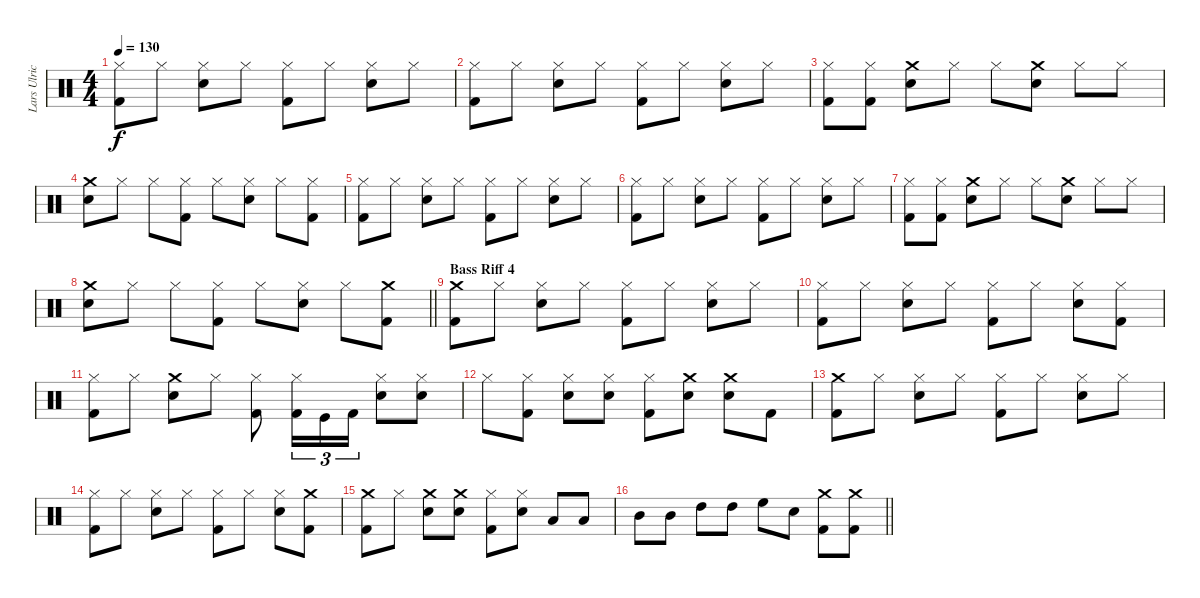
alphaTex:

\track ("Lars Ulrich (Drums)" "Lars Ulric") {instrument percussion}
\staff {score}
\articulation defaults
\ts (4 4)
\tempo 130
\clef neutral
\ks c
("Hi-Hat (closed)" "Kick (hit) 2").8{dy f} "Hi-Hat (closed)".8 ("Snare (hit) 2" "Hi-Hat (closed)").8 "Hi-Hat (closed)".8 ("Hi-Hat (closed)" "Kick (hit) 2").8 "Hi-Hat (closed)".8 ("Snare (hit) 2" "Hi-Hat (closed)").8 "Hi-Hat (closed)".8 |
("Hi-Hat (closed)" "Kick (hit) 2").8 "Hi-Hat (closed)".8 ("Snare (hit) 2" "Hi-Hat (closed)").8 "Hi-Hat (closed)".8 ("Hi-Hat (closed)" "Kick (hit) 2").8 "Hi-Hat (closed)".8 ("Snare (hit) 2" "Hi-Hat (closed)").8 "Hi-Hat (closed)".8 |
("Hi-Hat (closed)" "Kick (hit) 2").8 ("Hi-Hat (closed)" "Kick (hit) 2").8 ("Crash medium (hit)" "Snare (hit) 2").8 "Hi-Hat (closed)".8 "Hi-Hat (closed)".8 ("Crash medium (hit)" "Snare (hit) 2").8 "Hi-Hat (closed)".8 "Hi-Hat (closed)".8 |
("Crash medium (hit)" "Snare (hit) 2").8 "Hi-Hat (closed)".8 "Hi-Hat (closed)".8 ("Kick (hit) 2" "Hi-Hat (closed)").8 "Hi-Hat (closed)".8 ("Snare (hit) 2" "Hi-Hat (closed)").8 "Hi-Hat (closed)".8 ("Hi-Hat (closed)" "Kick (hit) 2").8 |
("Hi-Hat (closed)" "Kick (hit) 2").8 "Hi-Hat (closed)".8 ("Snare (hit) 2" "Hi-Hat (closed)").8 "Hi-Hat (closed)".8 ("Hi-Hat (closed)" "Kick (hit) 2").8 "Hi-Hat (closed)".8 ("Snare (hit) 2" "Hi-Hat (closed)").8 "Hi-Hat (closed)".8 |
("Hi-Hat (closed)" "Kick (hit) 2").8 "Hi-Hat (closed)".8 ("Snare (hit) 2" "Hi-Hat (closed)").8 "Hi-Hat (closed)".8 ("Hi-Hat (closed)" "Kick (hit) 2").8 "Hi-Hat (closed)".8 ("Snare (hit) 2" "Hi-Hat (closed)").8 "Hi-Hat (closed)".8 |
("Hi-Hat (closed)" "Kick (hit) 2").8 ("Hi-Hat (closed)" "Kick (hit) 2").8 ("Crash medium (hit)" "Snare (hit) 2").8 "Hi-Hat (closed)".8 "Hi-Hat (closed)".8 ("Crash medium (hit)" "Snare (hit) 2").8 "Hi-Hat (closed)".8 "Hi-Hat (closed)".8 |
\barLineRight lightlight
("Crash medium (hit)" "Snare (hit) 2").8 "Hi-Hat (closed)".8 "Hi-Hat (closed)".8 ("Kick (hit) 2" "Hi-Hat (closed)").8 "Hi-Hat (closed)".8 ("Snare (hit) 2" "Hi-Hat (closed)").8 "Hi-Hat (closed)".8 ("Crash medium (hit)" "Kick (hit) 2").8 |
\section ("" "Bass Riff 4")
("Crash medium (hit)" "Kick (hit) 2").8 "Hi-Hat (closed)".8 ("Snare (hit) 2" "Hi-Hat (closed)").8 "Hi-Hat (closed)".8 ("Hi-Hat (closed)" "Kick (hit) 2").8 "Hi-Hat (closed)".8 ("Snare (hit) 2" "Hi-Hat (closed)").8 "Hi-Hat (closed)".8 |
("Hi-Hat (closed)" "Kick (hit) 2").8 "Hi-Hat (closed)".8 ("Snare (hit) 2" "Hi-Hat (closed)").8 "Hi-Hat (closed)".8 ("Hi-Hat (closed)" "Kick (hit) 2").8 "Hi-Hat (closed)".8 ("Snare (hit) 2" "Hi-Hat (closed)").8 ("Hi-Hat (closed)" "Kick (hit) 2").8 |
("Kick (hit) 2" "Hi-Hat (closed)").8 "Hi-Hat (closed)".8 ("Crash medium (hit)" "Snare (hit) 2").8 "Hi-Hat (closed)".8 ("Kick (hit) 2" "Hi-Hat (closed)").8 ("Kick (hit) 2" "Hi-Hat (closed)").16{tu (3 2)} "Kick (hit)".16{tu (3 2)} "Kick (hit) 2".16{tu (3 2)} ("Snare (hit) 2" "Hi-Hat (closed)").8 ("Snare (hit) 2" "Hi-Hat (closed)").8 |
"Hi-Hat (closed)".8 ("Kick (hit) 2" "Hi-Hat (closed)").8 ("Snare (hit) 2" "Hi-Hat (closed)").8 ("Hi-Hat (closed)" "Snare (hit) 2").8 ("Kick (hit) 2" "Hi-Hat (closed)").8 ("Crash medium (hit)" "Snare (hit) 2").8 ("Snare (hit) 2" "Crash medium (hit)").8 "Kick (hit) 2".8 |
("Crash medium (hit)" "Kick (hit) 2").8 "Hi-Hat (closed)".8 ("Snare (hit) 2" "Hi-Hat (closed)").8 "Hi-Hat (closed)".8 ("Hi-Hat (closed)" "Kick (hit) 2").8 "Hi-Hat (closed)".8 ("Snare (hit) 2" "Hi-Hat (closed)").8 "Hi-Hat (closed)".8 |
("Hi-Hat (closed)" "Kick (hit) 2").8 "Hi-Hat (closed)".8 ("Snare (hit) 2" "Hi-Hat (closed)").8 "Hi-Hat (closed)".8 ("Hi-Hat (closed)" "Kick (hit) 2").8 "Hi-Hat (closed)".8 ("Snare (hit) 2" "Hi-Hat (closed)").8 ("Crash medium (hit)" "Kick (hit) 2").8 |
("Crash medium (hit)" "Kick (hit) 2").8 "Hi-Hat (closed)".8 ("Crash medium (hit)" "Snare (hit) 2").8 ("Crash medium (hit)" "Snare (hit) 2").8 ("Hi-Hat (closed)" "Kick (hit) 2").8 ("Snare (hit) 2" "Hi-Hat (closed)").8 "Low Tom (hit)".8 "Low Tom (hit)".8 |
\barLineRight lightlight "Mid Tom (hit)".8 "Mid Tom (hit)".8 "High Tom (hit)".8 "High Tom (hit)".8 "High Floor Tom (hit)".8 "Snare (hit) 2".8
("Crash medium (hit)" "Kick (hit) 2").8 ("Crash medium (hit)" "Kick (hit) 2").8
